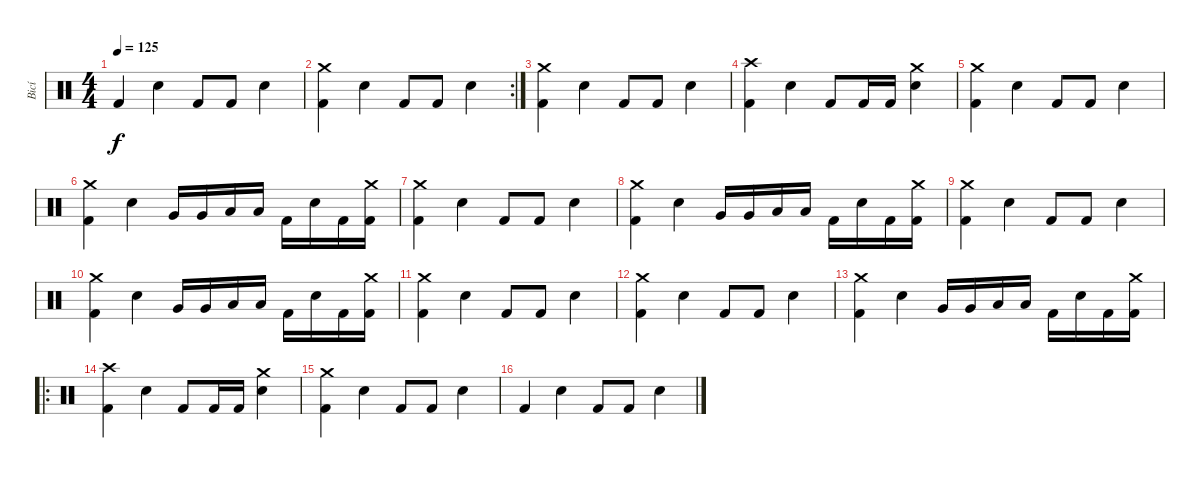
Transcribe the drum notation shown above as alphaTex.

\track ("Bicí" "Bicí") {instrument percussion}
\staff {score}
\articulation defaults
\ts (4 4)
\tempo 125
\clef neutral
\ks c "Kick (hit) 2".4{dy f} "Electric Snare (hit)".4 "Kick (hit) 2".8 "Kick (hit) 2".8 "Electric Snare (hit)".4
|
\rc 2
("Crash medium (hit)" "Kick (hit) 2").4 "Electric Snare (hit)".4 "Kick (hit) 2".8 "Kick (hit) 2".8 "Electric Snare (hit)".4 |
("Crash medium (hit)" "Kick (hit) 2").4 "Electric Snare (hit)".4 "Kick (hit) 2".8 "Kick (hit) 2".8 "Electric Snare (hit)".4 |
("Crash high (hit)" "Kick (hit) 2").4 "Electric Snare (hit)".4 "Kick (hit) 2".8 "Kick (hit) 2".16 "Kick (hit) 2".16 ("Crash medium (hit)" "Electric Snare (hit)").4 |
("Crash medium (hit)" "Kick (hit) 2").4 "Electric Snare (hit)".4 "Kick (hit) 2".8 "Kick (hit) 2".8 "Electric Snare (hit)".4 |
("Crash medium (hit)" "Kick (hit) 2").4 "Electric Snare (hit)".4 "Very Low Tom (hit)".16 "Very Low Tom (hit)".16 "Low Floor Tom (hit)".16 "Low Floor Tom (hit)".16 "Kick (hit) 2".16 "Electric Snare (hit)".16 "Kick (hit) 2".16 ("Crash medium (hit)" "Kick (hit) 2").16 |
("Crash medium (hit)" "Kick (hit) 2").4 "Electric Snare (hit)".4 "Kick (hit) 2".8 "Kick (hit) 2".8 "Electric Snare (hit)".4 |
("Crash medium (hit)" "Kick (hit) 2").4 "Electric Snare (hit)".4 "Very Low Tom (hit)".16 "Very Low Tom (hit)".16 "Low Floor Tom (hit)".16 "Low Floor Tom (hit)".16 "Kick (hit) 2".16 "Electric Snare (hit)".16 "Kick (hit) 2".16 ("Crash medium (hit)" "Kick (hit) 2").16 |
("Crash medium (hit)" "Kick (hit) 2").4 "Electric Snare (hit)".4 "Kick (hit) 2".8 "Kick (hit) 2".8 "Electric Snare (hit)".4 |
("Crash medium (hit)" "Kick (hit) 2").4 "Electric Snare (hit)".4 "Very Low Tom (hit)".16 "Very Low Tom (hit)".16 "Low Floor Tom (hit)".16 "Low Floor Tom (hit)".16 "Kick (hit) 2".16 "Electric Snare (hit)".16 "Kick (hit) 2".16 ("Crash medium (hit)" "Kick (hit) 2").16 |
("Crash medium (hit)" "Kick (hit) 2").4 "Electric Snare (hit)".4 "Kick (hit) 2".8 "Kick (hit) 2".8 "Electric Snare (hit)".4 |
("Crash medium (hit)" "Kick (hit) 2").4 "Electric Snare (hit)".4 "Kick (hit) 2".8 "Kick (hit) 2".8 "Electric Snare (hit)".4 |
("Crash medium (hit)" "Kick (hit) 2").4 "Electric Snare (hit)".4 "Very Low Tom (hit)".16 "Very Low Tom (hit)".16 "Low Floor Tom (hit)".16 "Low Floor Tom (hit)".16 "Kick (hit) 2".16 "Electric Snare (hit)".16 "Kick (hit) 2".16 ("Crash medium (hit)" "Kick (hit) 2").16 |
\ro
("Crash high (hit)" "Kick (hit) 2").4 "Electric Snare (hit)".4 "Kick (hit) 2".8 "Kick (hit) 2".16 "Kick (hit) 2".16 ("Crash medium (hit)" "Electric Snare (hit)").4 |
("Crash medium (hit)" "Kick (hit) 2").4 "Electric Snare (hit)".4 "Kick (hit) 2".8 "Kick (hit) 2".8 "Electric Snare (hit)".4 |
"Kick (hit) 2".4 "Electric Snare (hit)".4 "Kick (hit) 2".8 "Kick (hit) 2".8 "Electric Snare (hit)".4
